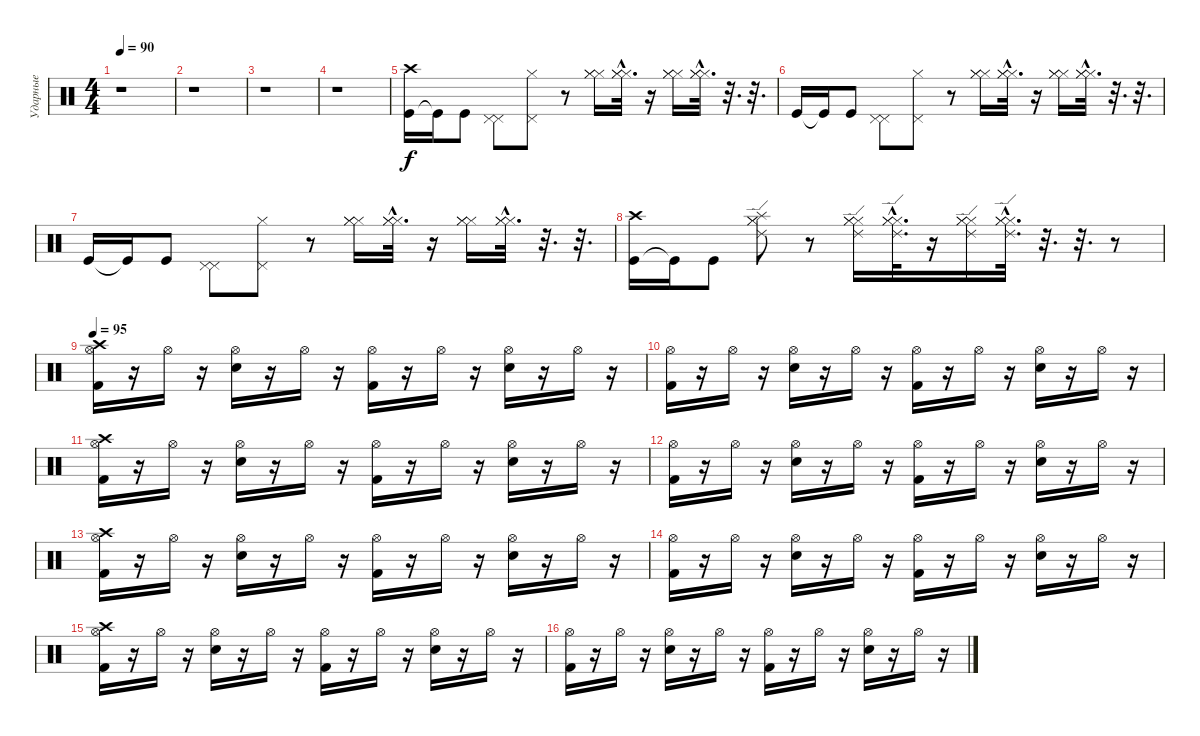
\track ("Ударные" "Ударные") {instrument percussion}
\staff {score}
\articulation defaults
\ts (4 4)
\tempo 90
\clef neutral
\ks c
r.1{dy f} |
r.1 |
r.1 |
r.1 |
("Kick (hit)" "Crash high (hit)").16 "Kick (hit)"{t}.16 "Kick (hit)".8 ("Pedal Hi-Hat (hit)" "Pedal Hi-Hat (hit)").8 ("Pedal Hi-Hat (hit)" "Hi-Hat (closed)").8 r.8 ("Hi-Hat (closed)" "Hi-Hat (closed)" "Hi-Hat (closed)").16 ("Hi-Hat (closed)"{hac} "Hi-Hat (closed)"{hac} "Hi-Hat (closed)"{hac}).32{d} r.16 ("Hi-Hat (closed)" "Hi-Hat (closed)" "Hi-Hat (closed)").16 ("Hi-Hat (closed)"{hac} "Hi-Hat (closed)"{hac} "Hi-Hat (closed)"{hac}).32{d} r.32{d} r.32{d} |
"Kick (hit)".16 "Kick (hit)"{t}.16 "Kick (hit)".8 ("Pedal Hi-Hat (hit)" "Pedal Hi-Hat (hit)").8 ("Pedal Hi-Hat (hit)" "Hi-Hat (closed)").8 r.8 ("Hi-Hat (closed)" "Hi-Hat (closed)" "Hi-Hat (closed)").16 ("Hi-Hat (closed)"{hac} "Hi-Hat (closed)"{hac} "Hi-Hat (closed)"{hac}).32{d} r.16 ("Hi-Hat (closed)" "Hi-Hat (closed)" "Hi-Hat (closed)").16 ("Hi-Hat (closed)"{hac} "Hi-Hat (closed)"{hac} "Hi-Hat (closed)"{hac}).32{d} r.32{d} r.32{d} |
"Kick (hit)".16 "Kick (hit)"{t}.16 "Kick (hit)".8 ("Pedal Hi-Hat (hit)" "Pedal Hi-Hat (hit)").8 ("Pedal Hi-Hat (hit)" "Hi-Hat (closed)").8 r.8 ("Hi-Hat (closed)" "Hi-Hat (closed)" "Hi-Hat (closed)").16 ("Hi-Hat (closed)"{hac} "Hi-Hat (closed)"{hac} "Hi-Hat (closed)"{hac}).32{d} r.16 ("Hi-Hat (closed)" "Hi-Hat (closed)" "Hi-Hat (closed)").16 ("Hi-Hat (closed)"{hac} "Hi-Hat (closed)"{hac} "Hi-Hat (closed)"{hac}).32{d} r.32{d} r.32{d} |
("Kick (hit)" "Crash high (hit)").16 "Kick (hit)"{t}.16 "Kick (hit)".8 ("Ride (edge) 2" "Hi-Hat (closed)" "Hi-Hat (closed)" "Splash (hit)").8 r.8 ("Ride (edge) 2" "Hi-Hat (closed)" "Hi-Hat (closed)" "Hi-Hat (closed)").16 ("Ride (edge) 2"{hac} "Hi-Hat (closed)"{hac} "Hi-Hat (closed)"{hac} "Hi-Hat (closed)"{hac}).32{d} r.16 ("Ride (edge) 2" "Hi-Hat (closed)" "Hi-Hat (closed)" "Hi-Hat (closed)").16 ("Ride (edge) 2"{hac} "Hi-Hat (closed)"{hac} "Hi-Hat (closed)"{hac} "Hi-Hat (closed)"{hac}).32{d} r.32{d} r.32{d} r.8 |
\tempo 95
("Kick (hit) 2" "Crash high (hit)" "Hi-Hat (open)").16 r.16 "Hi-Hat (open)".16 r.16 ("Snare (hit) 2" "Hi-Hat (open)").16 r.16 "Hi-Hat (open)".16 r.16 ("Kick (hit) 2" "Hi-Hat (open)").16 r.16 "Hi-Hat (open)".16 r.16 ("Snare (hit) 2" "Hi-Hat (open)").16 r.16 "Hi-Hat (open)".16 r.16 |
("Kick (hit) 2" "Hi-Hat (open)").16 r.16 "Hi-Hat (open)".16 r.16 ("Snare (hit) 2" "Hi-Hat (open)").16 r.16 "Hi-Hat (open)".16 r.16 ("Kick (hit) 2" "Hi-Hat (open)").16 r.16 "Hi-Hat (open)".16 r.16 ("Snare (hit) 2" "Hi-Hat (open)").16 r.16 "Hi-Hat (open)".16 r.16 |
("Kick (hit) 2" "Crash high (hit)" "Hi-Hat (open)").16 r.16 "Hi-Hat (open)".16 r.16 ("Snare (hit) 2" "Hi-Hat (open)").16 r.16 "Hi-Hat (open)".16 r.16 ("Kick (hit) 2" "Hi-Hat (open)").16 r.16 "Hi-Hat (open)".16 r.16 ("Snare (hit) 2" "Hi-Hat (open)").16 r.16 "Hi-Hat (open)".16 r.16 |
("Kick (hit) 2" "Hi-Hat (open)").16 r.16 "Hi-Hat (open)".16 r.16 ("Snare (hit) 2" "Hi-Hat (open)").16 r.16 "Hi-Hat (open)".16 r.16 ("Kick (hit) 2" "Hi-Hat (open)").16 r.16 "Hi-Hat (open)".16 r.16 ("Snare (hit) 2" "Hi-Hat (open)").16 r.16 "Hi-Hat (open)".16 r.16 |
("Kick (hit) 2" "Crash high (hit)" "Hi-Hat (open)").16 r.16 "Hi-Hat (open)".16 r.16 ("Snare (hit) 2" "Hi-Hat (open)").16 r.16 "Hi-Hat (open)".16 r.16 ("Kick (hit) 2" "Hi-Hat (open)").16 r.16 "Hi-Hat (open)".16 r.16 ("Snare (hit) 2" "Hi-Hat (open)").16 r.16 "Hi-Hat (open)".16 r.16 |
("Kick (hit) 2" "Hi-Hat (open)").16 r.16 "Hi-Hat (open)".16 r.16 ("Snare (hit) 2" "Hi-Hat (open)").16 r.16 "Hi-Hat (open)".16 r.16 ("Kick (hit) 2" "Hi-Hat (open)").16 r.16 "Hi-Hat (open)".16 r.16 ("Snare (hit) 2" "Hi-Hat (open)").16 r.16 "Hi-Hat (open)".16 r.16 |
("Kick (hit) 2" "Crash high (hit)" "Hi-Hat (open)").16 r.16 "Hi-Hat (open)".16 r.16 ("Snare (hit) 2" "Hi-Hat (open)").16 r.16 "Hi-Hat (open)".16 r.16 ("Kick (hit) 2" "Hi-Hat (open)").16 r.16 "Hi-Hat (open)".16 r.16 ("Snare (hit) 2" "Hi-Hat (open)").16 r.16 "Hi-Hat (open)".16 r.16 |
("Kick (hit) 2" "Hi-Hat (open)").16 r.16 "Hi-Hat (open)".16 r.16 ("Snare (hit) 2" "Hi-Hat (open)").16 r.16 "Hi-Hat (open)".16 r.16 ("Kick (hit) 2" "Hi-Hat (open)").16 r.16 "Hi-Hat (open)".16 r.16 ("Snare (hit) 2" "Hi-Hat (open)").16 r.16 "Hi-Hat (open)".16 r.16
